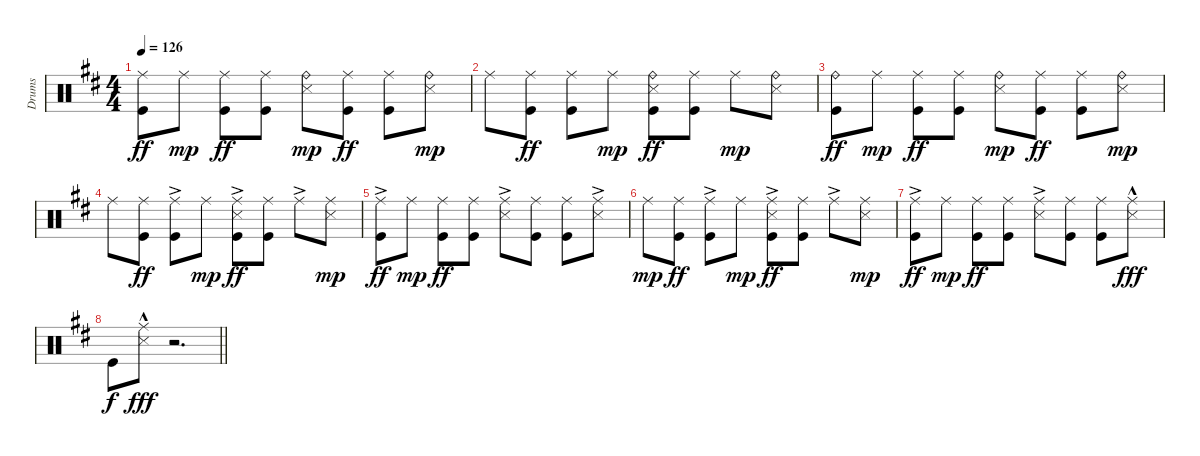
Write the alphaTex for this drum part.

\track ("Drums" "Drums") {instrument percussion}
\staff {score}
\articulation defaults
\ts (4 4)
\tempo 126
\clef neutral
\ks bminor
("Ride (middle)" "Kick (hit)").8{dy ff} "Ride (middle)".8{dy mp} ("Ride (middle)" "Kick (hit)").8{dy ff} ("Ride (middle)" "Kick (hit)").8 ("Ride (bell)" "Snare (side stick) 3").8{dy mp} ("Ride (middle)" "Kick (hit)").8{dy ff} ("Ride (middle)" "Kick (hit)").8 ("Ride (bell)" "Snare (side stick) 3").8{dy mp} |
"Ride (middle)".8 ("Ride (middle)" "Kick (hit)").8{dy ff} ("Ride (middle)" "Kick (hit)").8 "Ride (middle)".8{dy mp} ("Ride (bell)" "Snare (side stick) 3" "Kick (hit)").8{dy ff} ("Ride (middle)" "Kick (hit)").8 "Ride (middle)".8{dy mp} ("Ride (bell)" "Snare (side stick) 3").8 |
("Ride (bell)" "Kick (hit)").8{dy ff} "Ride (middle)".8{dy mp} ("Ride (middle)" "Kick (hit)").8{dy ff} ("Ride (middle)" "Kick (hit)").8 ("Ride (bell)" "Snare (side stick) 3").8{dy mp} ("Ride (middle)" "Kick (hit)").8{dy ff} ("Ride (middle)" "Kick (hit)").8 ("Ride (bell)" "Snare (side stick) 3").8{dy mp} |
"Ride (middle)".8 ("Ride (middle)" "Kick (hit)").8{dy ff} ("Ride (middle)"{ac} "Kick (hit)").8 "Ride (middle)".8{dy mp} ("Ride (middle)"{ac} "Snare (side stick) 3" "Kick (hit)").8{dy ff} ("Ride (middle)" "Kick (hit)").8 "Ride (middle)"{ac}.8 ("Ride (middle)" "Snare (side stick) 3").8{dy mp} |
("Ride (middle)"{ac} "Kick (hit)").8{dy ff} "Ride (middle)".8{dy mp} ("Ride (middle)" "Kick (hit)").8{dy ff} ("Ride (middle)" "Kick (hit)").8 ("Ride (middle)"{ac} "Snare (side stick) 3").8 ("Ride (middle)" "Kick (hit)").8 ("Ride (middle)" "Kick (hit)").8 ("Ride (middle)"{ac} "Snare (side stick) 3").8 |
"Ride (middle)".8{dy mp} ("Ride (middle)" "Kick (hit)").8{dy ff} ("Ride (middle)"{ac} "Kick (hit)").8 "Ride (middle)".8{dy mp} ("Ride (middle)"{ac} "Snare (side stick) 3" "Kick (hit)").8{dy ff} ("Ride (middle)" "Kick (hit)").8 "Ride (middle)"{ac}.8 ("Ride (middle)" "Snare (side stick) 3").8{dy mp} |
("Ride (middle)"{ac} "Kick (hit)").8{dy ff} "Ride (middle)".8{dy mp} ("Ride (middle)" "Kick (hit)").8{dy ff} ("Ride (middle)" "Kick (hit)").8 ("Ride (middle)"{ac} "Snare (side stick) 3").8 ("Ride (middle)" "Kick (hit)").8 ("Ride (middle)" "Kick (hit)").8 ("Ride (middle)"{hac} "Snare (side stick) 3"{hac}).8{dy fff} |
\barLineRight lightlight "Kick (hit)".8{dy f}
("Ride (middle)"{hac} "Snare (side stick) 3"{hac}).8{dy fff} r.2{d}
